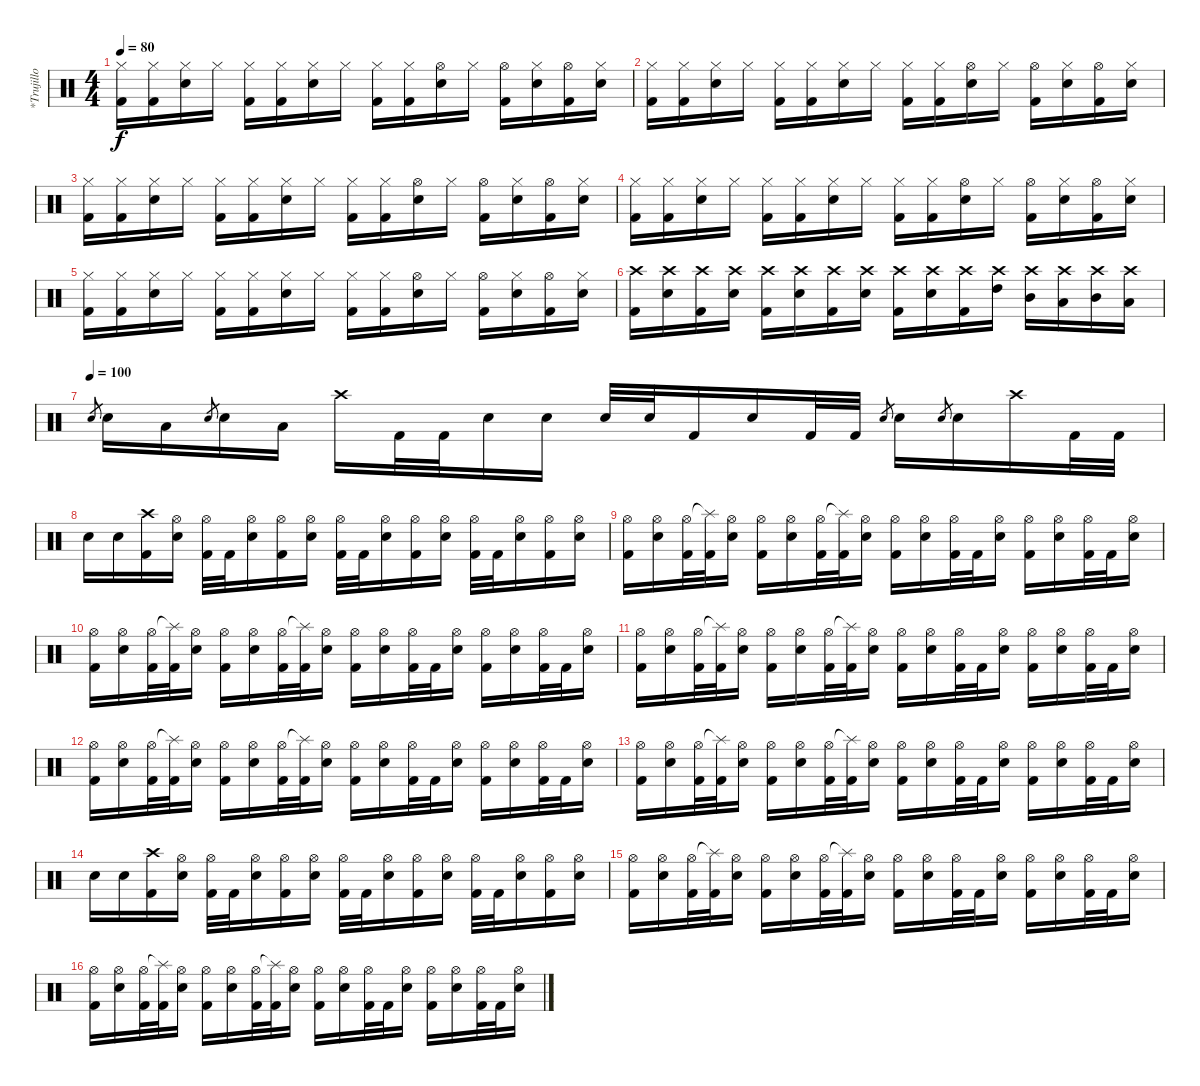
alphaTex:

\track ("*Trujillo" "*Trujillo") {instrument percussion}
\staff {score}
\articulation defaults
\ts (4 4)
\tempo 80
\clef neutral
\ks c
("Hi-Hat (closed)" "Kick (hit) 2").16{dy f} ("Hi-Hat (closed)" "Kick (hit) 2").16 ("Hi-Hat (closed)" "Electric Snare (hit)").16 "Hi-Hat (closed)".16 ("Hi-Hat (closed)" "Kick (hit) 2").16 ("Hi-Hat (closed)" "Kick (hit) 2").16 ("Hi-Hat (closed)" "Electric Snare (hit)").16 "Hi-Hat (closed)".16 ("Hi-Hat (closed)" "Kick (hit) 2").16 ("Hi-Hat (closed)" "Kick (hit) 2").16 ("Hi-Hat (open)" "Electric Snare (hit)").16 "Hi-Hat (closed)".16 ("Hi-Hat (open)" "Kick (hit) 2").16 ("Hi-Hat (closed)" "Electric Snare (hit)").16 ("Hi-Hat (open)" "Kick (hit) 2").16 ("Hi-Hat (closed)" "Electric Snare (hit)").16 |
("Hi-Hat (closed)" "Kick (hit) 2").16 ("Hi-Hat (closed)" "Kick (hit) 2").16 ("Hi-Hat (closed)" "Electric Snare (hit)").16 "Hi-Hat (closed)".16 ("Hi-Hat (closed)" "Kick (hit) 2").16 ("Hi-Hat (closed)" "Kick (hit) 2").16 ("Hi-Hat (closed)" "Electric Snare (hit)").16 "Hi-Hat (closed)".16 ("Hi-Hat (closed)" "Kick (hit) 2").16 ("Hi-Hat (closed)" "Kick (hit) 2").16 ("Hi-Hat (open)" "Electric Snare (hit)").16 "Hi-Hat (closed)".16 ("Hi-Hat (open)" "Kick (hit) 2").16 ("Hi-Hat (closed)" "Electric Snare (hit)").16 ("Hi-Hat (open)" "Kick (hit) 2").16 ("Hi-Hat (closed)" "Electric Snare (hit)").16 |
("Hi-Hat (closed)" "Kick (hit) 2").16 ("Hi-Hat (closed)" "Kick (hit) 2").16 ("Hi-Hat (closed)" "Electric Snare (hit)").16 "Hi-Hat (closed)".16 ("Hi-Hat (closed)" "Kick (hit) 2").16 ("Hi-Hat (closed)" "Kick (hit) 2").16 ("Hi-Hat (closed)" "Electric Snare (hit)").16 "Hi-Hat (closed)".16 ("Hi-Hat (closed)" "Kick (hit) 2").16 ("Hi-Hat (closed)" "Kick (hit) 2").16 ("Hi-Hat (open)" "Electric Snare (hit)").16 "Hi-Hat (closed)".16 ("Hi-Hat (open)" "Kick (hit) 2").16 ("Hi-Hat (closed)" "Electric Snare (hit)").16 ("Hi-Hat (open)" "Kick (hit) 2").16 ("Hi-Hat (closed)" "Electric Snare (hit)").16 |
("Hi-Hat (closed)" "Kick (hit) 2").16 ("Hi-Hat (closed)" "Kick (hit) 2").16 ("Hi-Hat (closed)" "Electric Snare (hit)").16 "Hi-Hat (closed)".16 ("Hi-Hat (closed)" "Kick (hit) 2").16 ("Hi-Hat (closed)" "Kick (hit) 2").16 ("Hi-Hat (closed)" "Electric Snare (hit)").16 "Hi-Hat (closed)".16 ("Hi-Hat (closed)" "Kick (hit) 2").16 ("Hi-Hat (closed)" "Kick (hit) 2").16 ("Hi-Hat (open)" "Electric Snare (hit)").16 "Hi-Hat (closed)".16 ("Hi-Hat (open)" "Kick (hit) 2").16 ("Hi-Hat (closed)" "Electric Snare (hit)").16 ("Hi-Hat (open)" "Kick (hit) 2").16 ("Hi-Hat (closed)" "Electric Snare (hit)").16 |
("Hi-Hat (closed)" "Kick (hit) 2").16 ("Hi-Hat (closed)" "Kick (hit) 2").16 ("Hi-Hat (closed)" "Electric Snare (hit)").16 "Hi-Hat (closed)".16 ("Hi-Hat (closed)" "Kick (hit) 2").16 ("Hi-Hat (closed)" "Kick (hit) 2").16 ("Hi-Hat (closed)" "Electric Snare (hit)").16 "Hi-Hat (closed)".16 ("Hi-Hat (closed)" "Kick (hit) 2").16 ("Hi-Hat (closed)" "Kick (hit) 2").16 ("Hi-Hat (open)" "Electric Snare (hit)").16 "Hi-Hat (closed)".16 ("Hi-Hat (open)" "Kick (hit) 2").16 ("Hi-Hat (closed)" "Electric Snare (hit)").16 ("Hi-Hat (open)" "Kick (hit) 2").16 ("Hi-Hat (closed)" "Electric Snare (hit)").16 |
("Crash high (hit)" "Kick (hit) 2").16 ("Crash high (hit)" "Electric Snare (hit)").16 ("Crash high (hit)" "Kick (hit) 2").16 ("Crash high (hit)" "Electric Snare (hit)").16 ("Crash high (hit)" "Kick (hit) 2").16 ("Crash high (hit)" "Electric Snare (hit)").16 ("Crash high (hit)" "Kick (hit) 2").16 ("Crash high (hit)" "Electric Snare (hit)").16 ("Crash high (hit)" "Kick (hit) 2").16 ("Crash high (hit)" "Electric Snare (hit)").16 ("Crash high (hit)" "Kick (hit) 2").16 ("Crash high (hit)" "High Tom (hit)").16 ("Crash high (hit)" "Mid Tom (hit)").16 ("Crash high (hit)" "Low Tom (hit)").16 ("Crash high (hit)" "Mid Tom (hit)").16 ("Crash high (hit)" "Low Tom (hit)").16 |
\tempo (100)
"Electric Snare (hit)".8{gr} "Electric Snare (hit)".16 "Low Tom (hit)".16 "Electric Snare (hit)".8{gr} "Electric Snare (hit)".16 "Low Tom (hit)".16 "Crash high (hit)".16 "Kick (hit) 2".32 "Kick (hit) 2".32 "Electric Snare (hit)".16 "Electric Snare (hit)".16 "Electric Snare (hit)".32 "Electric Snare (hit)".32 "Kick (hit) 2".16 "Electric Snare (hit)".16 "Kick (hit) 2".32 "Kick (hit) 2".32 "Electric Snare (hit)".8{gr} "Electric Snare (hit)".16 "Electric Snare (hit)".8{gr} "Electric Snare (hit)".16 "Crash high (hit)".16 "Kick (hit) 2".32 "Kick (hit) 2".32 |
"Electric Snare (hit)".16 "Electric Snare (hit)".16 ("Crash high (hit)" "Kick (hit) 2").16 ("Hi-Hat (open)" "Electric Snare (hit)").16 ("Hi-Hat (open)" "Kick (hit) 2").32 "Kick (hit) 2".32 ("Hi-Hat (open)" "Electric Snare (hit)").16 ("Hi-Hat (open)" "Kick (hit) 2").16 ("Hi-Hat (open)" "Electric Snare (hit)").16 ("Hi-Hat (open)" "Kick (hit) 2").32 "Kick (hit) 2".32 ("Hi-Hat (open)" "Electric Snare (hit)").16 ("Hi-Hat (open)" "Kick (hit) 2").16 ("Hi-Hat (open)" "Electric Snare (hit)").16 ("Hi-Hat (open)" "Kick (hit) 2").32 "Kick (hit) 2".32 ("Hi-Hat (open)" "Electric Snare (hit)").16 ("Hi-Hat (open)" "Kick (hit) 2").16 ("Hi-Hat (open)" "Electric Snare (hit)").16 |
("Hi-Hat (open)" "Kick (hit) 2").16 ("Hi-Hat (open)" "Electric Snare (hit)").16 ("Hi-Hat (open)" "Kick (hit) 2").32 ("Splash (hit)"{t} "Kick (hit) 2").32 ("Hi-Hat (open)" "Electric Snare (hit)").16 ("Hi-Hat (open)" "Kick (hit) 2").16 ("Hi-Hat (open)" "Electric Snare (hit)").16 ("Hi-Hat (open)" "Kick (hit) 2").32 ("Splash (hit)"{t} "Kick (hit) 2").32 ("Hi-Hat (open)" "Electric Snare (hit)").16 ("Hi-Hat (open)" "Kick (hit) 2").16 ("Hi-Hat (open)" "Electric Snare (hit)").16 ("Hi-Hat (open)" "Kick (hit) 2").32 "Kick (hit) 2".32 ("Hi-Hat (open)" "Electric Snare (hit)").16 ("Kick (hit) 2" "Hi-Hat (open)").16 ("Hi-Hat (open)" "Electric Snare (hit)").16 ("Hi-Hat (open)" "Kick (hit) 2").32 "Kick (hit) 2".32 ("Hi-Hat (open)" "Electric Snare (hit)").16 |
("Hi-Hat (open)" "Kick (hit) 2").16 ("Hi-Hat (open)" "Electric Snare (hit)").16 ("Hi-Hat (open)" "Kick (hit) 2").32 ("Splash (hit)"{t} "Kick (hit) 2").32 ("Hi-Hat (open)" "Electric Snare (hit)").16 ("Hi-Hat (open)" "Kick (hit) 2").16 ("Hi-Hat (open)" "Electric Snare (hit)").16 ("Hi-Hat (open)" "Kick (hit) 2").32 ("Splash (hit)"{t} "Kick (hit) 2").32 ("Hi-Hat (open)" "Electric Snare (hit)").16 ("Hi-Hat (open)" "Kick (hit) 2").16 ("Hi-Hat (open)" "Electric Snare (hit)").16 ("Hi-Hat (open)" "Kick (hit) 2").32 "Kick (hit) 2".32 ("Hi-Hat (open)" "Electric Snare (hit)").16 ("Kick (hit) 2" "Hi-Hat (open)").16 ("Hi-Hat (open)" "Electric Snare (hit)").16 ("Hi-Hat (open)" "Kick (hit) 2").32 "Kick (hit) 2".32 ("Hi-Hat (open)" "Electric Snare (hit)").16 |
("Hi-Hat (open)" "Kick (hit) 2").16 ("Hi-Hat (open)" "Electric Snare (hit)").16 ("Hi-Hat (open)" "Kick (hit) 2").32 ("Splash (hit)"{t} "Kick (hit) 2").32 ("Hi-Hat (open)" "Electric Snare (hit)").16 ("Hi-Hat (open)" "Kick (hit) 2").16 ("Hi-Hat (open)" "Electric Snare (hit)").16 ("Hi-Hat (open)" "Kick (hit) 2").32 ("Splash (hit)"{t} "Kick (hit) 2").32 ("Hi-Hat (open)" "Electric Snare (hit)").16 ("Hi-Hat (open)" "Kick (hit) 2").16 ("Hi-Hat (open)" "Electric Snare (hit)").16 ("Hi-Hat (open)" "Kick (hit) 2").32 "Kick (hit) 2".32 ("Hi-Hat (open)" "Electric Snare (hit)").16 ("Kick (hit) 2" "Hi-Hat (open)").16 ("Hi-Hat (open)" "Electric Snare (hit)").16 ("Hi-Hat (open)" "Kick (hit) 2").32 "Kick (hit) 2".32 ("Hi-Hat (open)" "Electric Snare (hit)").16 |
("Hi-Hat (open)" "Kick (hit) 2").16 ("Hi-Hat (open)" "Electric Snare (hit)").16 ("Hi-Hat (open)" "Kick (hit) 2").32 ("Splash (hit)"{t} "Kick (hit) 2").32 ("Hi-Hat (open)" "Electric Snare (hit)").16 ("Hi-Hat (open)" "Kick (hit) 2").16 ("Hi-Hat (open)" "Electric Snare (hit)").16 ("Hi-Hat (open)" "Kick (hit) 2").32 ("Splash (hit)"{t} "Kick (hit) 2").32 ("Hi-Hat (open)" "Electric Snare (hit)").16 ("Hi-Hat (open)" "Kick (hit) 2").16 ("Hi-Hat (open)" "Electric Snare (hit)").16 ("Hi-Hat (open)" "Kick (hit) 2").32 "Kick (hit) 2".32 ("Hi-Hat (open)" "Electric Snare (hit)").16 ("Kick (hit) 2" "Hi-Hat (open)").16 ("Hi-Hat (open)" "Electric Snare (hit)").16 ("Hi-Hat (open)" "Kick (hit) 2").32 "Kick (hit) 2".32 ("Hi-Hat (open)" "Electric Snare (hit)").16 |
("Hi-Hat (open)" "Kick (hit) 2").16 ("Hi-Hat (open)" "Electric Snare (hit)").16 ("Hi-Hat (open)" "Kick (hit) 2").32 ("Splash (hit)"{t} "Kick (hit) 2").32 ("Hi-Hat (open)" "Electric Snare (hit)").16 ("Hi-Hat (open)" "Kick (hit) 2").16 ("Hi-Hat (open)" "Electric Snare (hit)").16 ("Hi-Hat (open)" "Kick (hit) 2").32 ("Splash (hit)"{t} "Kick (hit) 2").32 ("Hi-Hat (open)" "Electric Snare (hit)").16 ("Hi-Hat (open)" "Kick (hit) 2").16 ("Hi-Hat (open)" "Electric Snare (hit)").16 ("Hi-Hat (open)" "Kick (hit) 2").32 "Kick (hit) 2".32 ("Hi-Hat (open)" "Electric Snare (hit)").16 ("Kick (hit) 2" "Hi-Hat (open)").16 ("Hi-Hat (open)" "Electric Snare (hit)").16 ("Hi-Hat (open)" "Kick (hit) 2").32 "Kick (hit) 2".32 ("Hi-Hat (open)" "Electric Snare (hit)").16 |
"Electric Snare (hit)".16 "Electric Snare (hit)".16 ("Crash high (hit)" "Kick (hit) 2").16 ("Hi-Hat (open)" "Electric Snare (hit)").16 ("Hi-Hat (open)" "Kick (hit) 2").32 "Kick (hit) 2".32 ("Hi-Hat (open)" "Electric Snare (hit)").16 ("Hi-Hat (open)" "Kick (hit) 2").16 ("Hi-Hat (open)" "Electric Snare (hit)").16 ("Hi-Hat (open)" "Kick (hit) 2").32 "Kick (hit) 2".32 ("Hi-Hat (open)" "Electric Snare (hit)").16 ("Hi-Hat (open)" "Kick (hit) 2").16 ("Hi-Hat (open)" "Electric Snare (hit)").16 ("Hi-Hat (open)" "Kick (hit) 2").32 "Kick (hit) 2".32 ("Hi-Hat (open)" "Electric Snare (hit)").16 ("Hi-Hat (open)" "Kick (hit) 2").16 ("Hi-Hat (open)" "Electric Snare (hit)").16 |
("Hi-Hat (open)" "Kick (hit) 2").16 ("Hi-Hat (open)" "Electric Snare (hit)").16 ("Hi-Hat (open)" "Kick (hit) 2").32 ("Splash (hit)"{t} "Kick (hit) 2").32 ("Hi-Hat (open)" "Electric Snare (hit)").16 ("Hi-Hat (open)" "Kick (hit) 2").16 ("Hi-Hat (open)" "Electric Snare (hit)").16 ("Hi-Hat (open)" "Kick (hit) 2").32 ("Splash (hit)"{t} "Kick (hit) 2").32 ("Hi-Hat (open)" "Electric Snare (hit)").16 ("Hi-Hat (open)" "Kick (hit) 2").16 ("Hi-Hat (open)" "Electric Snare (hit)").16 ("Hi-Hat (open)" "Kick (hit) 2").32 "Kick (hit) 2".32 ("Hi-Hat (open)" "Electric Snare (hit)").16 ("Kick (hit) 2" "Hi-Hat (open)").16 ("Hi-Hat (open)" "Electric Snare (hit)").16 ("Hi-Hat (open)" "Kick (hit) 2").32 "Kick (hit) 2".32 ("Hi-Hat (open)" "Electric Snare (hit)").16 |
("Hi-Hat (open)" "Kick (hit) 2").16 ("Hi-Hat (open)" "Electric Snare (hit)").16 ("Hi-Hat (open)" "Kick (hit) 2").32 ("Splash (hit)"{t} "Kick (hit) 2").32 ("Hi-Hat (open)" "Electric Snare (hit)").16 ("Hi-Hat (open)" "Kick (hit) 2").16 ("Hi-Hat (open)" "Electric Snare (hit)").16 ("Hi-Hat (open)" "Kick (hit) 2").32 ("Splash (hit)"{t} "Kick (hit) 2").32 ("Hi-Hat (open)" "Electric Snare (hit)").16 ("Hi-Hat (open)" "Kick (hit) 2").16 ("Hi-Hat (open)" "Electric Snare (hit)").16 ("Hi-Hat (open)" "Kick (hit) 2").32 "Kick (hit) 2".32 ("Hi-Hat (open)" "Electric Snare (hit)").16 ("Kick (hit) 2" "Hi-Hat (open)").16 ("Hi-Hat (open)" "Electric Snare (hit)").16 ("Hi-Hat (open)" "Kick (hit) 2").32 "Kick (hit) 2".32 ("Hi-Hat (open)" "Electric Snare (hit)").16
